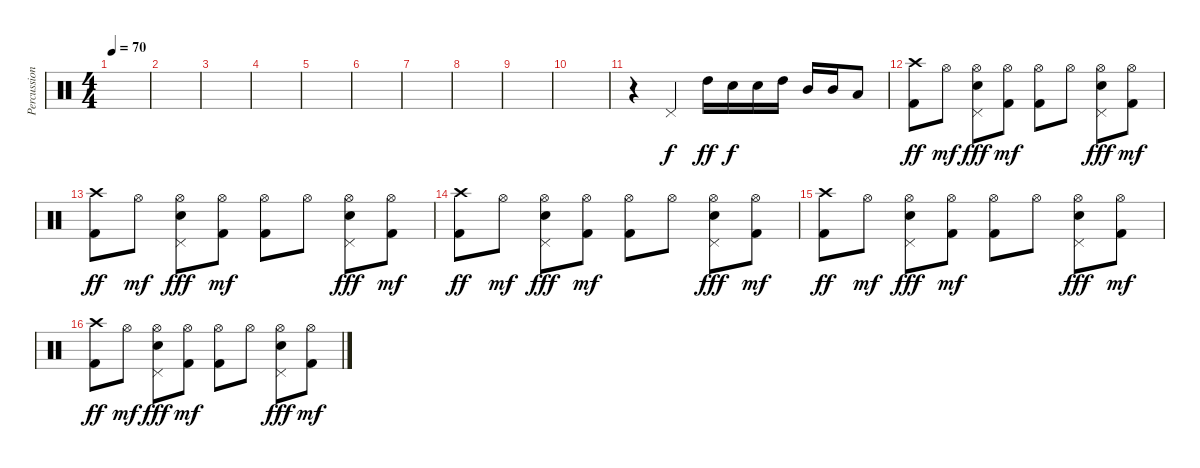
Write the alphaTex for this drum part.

\track ("Percussion" "Percussion") {instrument percussion}
\staff {score}
\articulation defaults
\ts (4 4)
\tempo 70
\clef neutral
\ks c
|
|
|
|
|
|
|
|
|
|
r.4 "Pedal Hi-Hat (hit)".4 "High Tom (hit)".16{dy ff} "Electric Snare (hit)".16{dy f} "Electric Snare (hit)".16 "High Tom (hit)".16 "Mid Tom (hit)".16 "Mid Tom (hit)".16 "Low Tom (hit)".8 |
("Crash high (hit)" "Kick (hit) 2").8{dy ff} "Hi-Hat (open)".8{dy mf} ("Hi-Hat (open)" "Electric Snare (hit)" "Pedal Hi-Hat (hit)").8{dy fff} ("Hi-Hat (open)" "Kick (hit) 2").8{dy mf} ("Hi-Hat (open)" "Kick (hit) 2").8 "Hi-Hat (open)".8 ("Hi-Hat (open)" "Electric Snare (hit)" "Pedal Hi-Hat (hit)").8{dy fff} ("Hi-Hat (open)" "Kick (hit) 2").8{dy mf} |
("Crash high (hit)" "Kick (hit) 2").8{dy ff} "Hi-Hat (open)".8{dy mf} ("Hi-Hat (open)" "Electric Snare (hit)" "Pedal Hi-Hat (hit)").8{dy fff} ("Hi-Hat (open)" "Kick (hit) 2").8{dy mf} ("Hi-Hat (open)" "Kick (hit) 2").8 "Hi-Hat (open)".8 ("Hi-Hat (open)" "Electric Snare (hit)" "Pedal Hi-Hat (hit)").8{dy fff} ("Hi-Hat (open)" "Kick (hit) 2").8{dy mf} |
("Crash high (hit)" "Kick (hit) 2").8{dy ff} "Hi-Hat (open)".8{dy mf} ("Hi-Hat (open)" "Electric Snare (hit)" "Pedal Hi-Hat (hit)").8{dy fff} ("Hi-Hat (open)" "Kick (hit) 2").8{dy mf} ("Hi-Hat (open)" "Kick (hit) 2").8 "Hi-Hat (open)".8 ("Hi-Hat (open)" "Electric Snare (hit)" "Pedal Hi-Hat (hit)").8{dy fff} ("Hi-Hat (open)" "Kick (hit) 2").8{dy mf} |
("Crash high (hit)" "Kick (hit) 2").8{dy ff} "Hi-Hat (open)".8{dy mf} ("Hi-Hat (open)" "Electric Snare (hit)" "Pedal Hi-Hat (hit)").8{dy fff} ("Hi-Hat (open)" "Kick (hit) 2").8{dy mf} ("Hi-Hat (open)" "Kick (hit) 2").8 "Hi-Hat (open)".8 ("Hi-Hat (open)" "Electric Snare (hit)" "Pedal Hi-Hat (hit)").8{dy fff} ("Hi-Hat (open)" "Kick (hit) 2").8{dy mf} |
("Crash high (hit)" "Kick (hit) 2").8{dy ff} "Hi-Hat (open)".8{dy mf} ("Hi-Hat (open)" "Electric Snare (hit)" "Pedal Hi-Hat (hit)").8{dy fff} ("Hi-Hat (open)" "Kick (hit) 2").8{dy mf} ("Hi-Hat (open)" "Kick (hit) 2").8 "Hi-Hat (open)".8 ("Hi-Hat (open)" "Electric Snare (hit)" "Pedal Hi-Hat (hit)").8{dy fff} ("Hi-Hat (open)" "Kick (hit) 2").8{dy mf}
